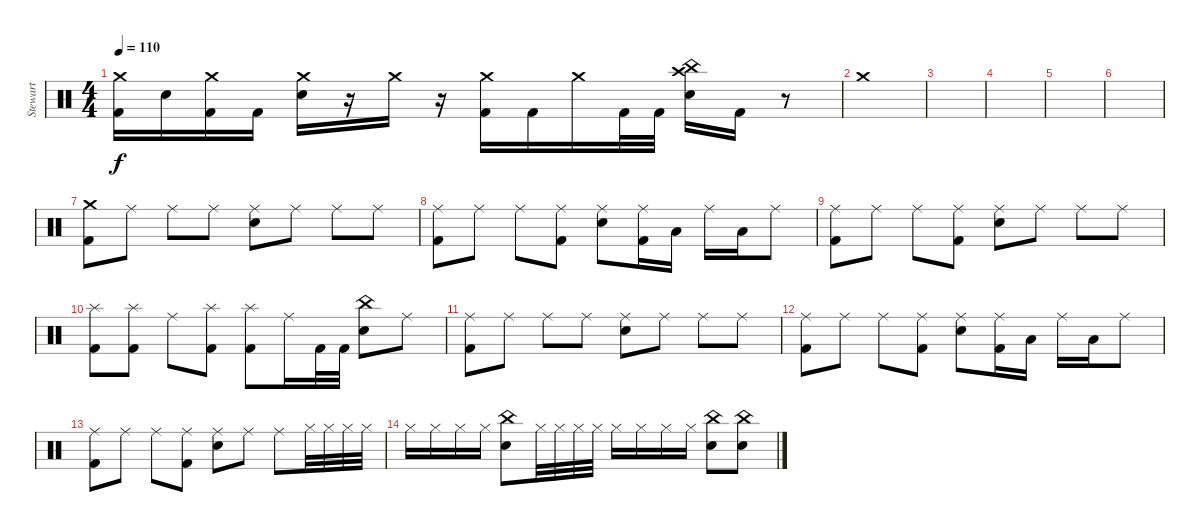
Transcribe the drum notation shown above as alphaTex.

\track ("Stewart" "Stewart") {instrument percussion}
\staff {score}
\articulation defaults
\ts (4 4)
\tempo 110
\clef neutral
\ks c
("Crash medium (hit)" "Kick (hit) 2").16{dy f} "Electric Snare (hit)".16 ("Crash medium (hit)" "Kick (hit) 2").16 "Kick (hit) 2".16 ("Crash medium (hit)" "Electric Snare (hit)").16 r.16 "Crash medium (hit)".16 r.16 ("Crash medium (hit)" "Kick (hit) 2").16 "Kick (hit) 2".16 "Crash medium (hit)".16 "Kick (hit) 2".32 "Kick (hit) 2".32 ("Crash high (hit)" "China (hit)" "Electric Snare (hit)").16 "Kick (hit) 2".16 r.8 |
"Crash medium (hit)".1 |
|
|
|
|
("Crash medium (hit)" "Kick (hit) 2").8 "Ride (middle)".8 "Ride (middle)".8 "Ride (middle)".8 ("Ride (middle)" "Electric Snare (hit)").8 "Ride (middle)".8 "Ride (middle)".8 "Ride (middle)".8 |
("Ride (middle)" "Kick (hit) 2").8 "Ride (middle)".8 "Ride (middle)".8 ("Ride (middle)" "Kick (hit) 2").8 ("Ride (middle)" "Electric Snare (hit)").8 ("Ride (middle)" "Kick (hit) 2").16 "Low Tom (hit)".16 "Ride (middle)".16 "Low Tom (hit)".16 "Ride (middle)".8 |
("Ride (middle)" "Kick (hit) 2").8 "Ride (middle)".8 "Ride (middle)".8 ("Ride (middle)" "Kick (hit) 2").8 ("Ride (middle)" "Electric Snare (hit)").8 "Ride (middle)".8 "Ride (middle)".8 "Ride (middle)".8 |
("Splash (hit)" "Kick (hit) 2").8 ("Splash (hit)" "Kick (hit) 2").8 "Ride (middle)".8 ("Splash (hit)" "Kick (hit) 2").8 ("Splash (hit)" "Kick (hit) 2").8 "Ride (middle)".16 "Kick (hit) 2".32 "Kick (hit) 2".32 ("China (hit)" "Electric Snare (hit)").8 "Ride (middle)".8 |
("Ride (middle)" "Kick (hit) 2").8 "Ride (middle)".8 "Ride (middle)".8 "Ride (middle)".8 ("Ride (middle)" "Electric Snare (hit)").8 "Ride (middle)".8 "Ride (middle)".8 "Ride (middle)".8 |
("Ride (middle)" "Kick (hit) 2").8 "Ride (middle)".8 "Ride (middle)".8 ("Ride (middle)" "Kick (hit) 2").8 ("Ride (middle)" "Electric Snare (hit)").8 ("Ride (middle)" "Kick (hit) 2").16 "Low Tom (hit)".16 "Ride (middle)".16 "Low Tom (hit)".16 "Ride (middle)".8 |
("Ride (middle)" "Kick (hit) 2").8 "Ride (middle)".8 "Ride (middle)".8 ("Ride (middle)" "Kick (hit) 2").8 ("Ride (middle)" "Electric Snare (hit)").8 "Ride (middle)".8 "Ride (middle)".8 "Hi-Hat (closed)".32 "Hi-Hat (closed)".32 "Hi-Hat (closed)".32 "Hi-Hat (closed)".32 |
"Hi-Hat (closed)".16 "Hi-Hat (closed)".16 "Hi-Hat (closed)".16 "Hi-Hat (closed)".16 ("China (hit)" "Electric Snare (hit)").8 "Hi-Hat (closed)".32 "Hi-Hat (closed)".32 "Hi-Hat (closed)".32 "Hi-Hat (closed)".32 "Hi-Hat (closed)".16 "Hi-Hat (closed)".16 "Hi-Hat (closed)".16 "Hi-Hat (closed)".16 ("China (hit)" "Electric Snare (hit)").8 ("China (hit)" "Electric Snare (hit)").8
